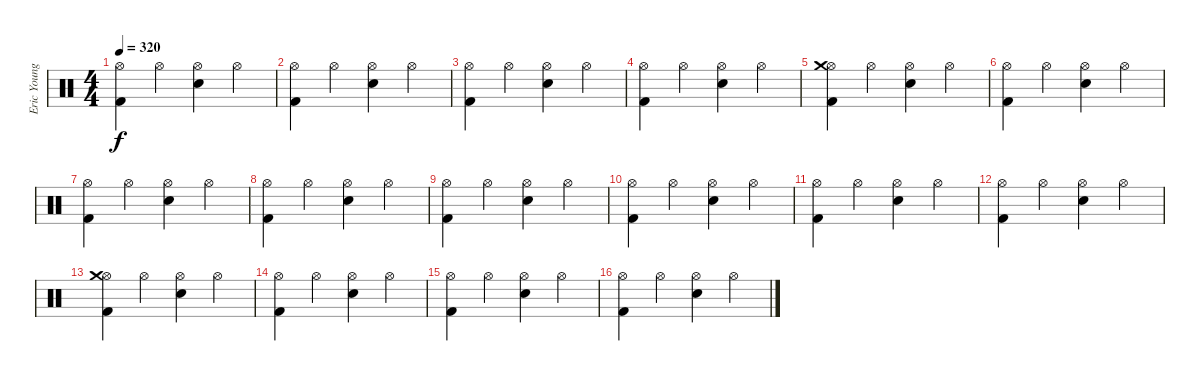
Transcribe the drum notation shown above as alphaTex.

\track ("Eric Young (Drums)" "Eric Young") {instrument percussion}
\staff {score}
\articulation defaults
\ts (4 4)
\tempo 320
\clef neutral
\ks c
("Hi-Hat (open)" "Kick (hit) 2").4{dy f} "Hi-Hat (open)".4 ("Hi-Hat (open)" "Snare (hit) 2").4 "Hi-Hat (open)".4 |
("Hi-Hat (open)" "Kick (hit) 2").4 "Hi-Hat (open)".4 ("Hi-Hat (open)" "Snare (hit) 2").4 "Hi-Hat (open)".4 |
("Hi-Hat (open)" "Kick (hit) 2").4 "Hi-Hat (open)".4 ("Hi-Hat (open)" "Snare (hit) 2").4 "Hi-Hat (open)".4 |
("Hi-Hat (open)" "Kick (hit) 2").4 "Hi-Hat (open)".4 ("Hi-Hat (open)" "Snare (hit) 2").4 "Hi-Hat (open)".4 |
("Hi-Hat (open)" "Kick (hit) 2" "Crash medium (hit)").4 "Hi-Hat (open)".4 ("Hi-Hat (open)" "Snare (hit) 2").4 "Hi-Hat (open)".4 |
("Hi-Hat (open)" "Kick (hit) 2").4 "Hi-Hat (open)".4 ("Hi-Hat (open)" "Snare (hit) 2").4 "Hi-Hat (open)".4 |
("Hi-Hat (open)" "Kick (hit) 2").4 "Hi-Hat (open)".4 ("Hi-Hat (open)" "Snare (hit) 2").4 "Hi-Hat (open)".4 |
("Hi-Hat (open)" "Kick (hit) 2").4 "Hi-Hat (open)".4 ("Hi-Hat (open)" "Snare (hit) 2").4 "Hi-Hat (open)".4 |
("Hi-Hat (open)" "Kick (hit) 2").4 "Hi-Hat (open)".4 ("Hi-Hat (open)" "Snare (hit) 2").4 "Hi-Hat (open)".4 |
("Hi-Hat (open)" "Kick (hit) 2").4 "Hi-Hat (open)".4 ("Hi-Hat (open)" "Snare (hit) 2").4 "Hi-Hat (open)".4 |
("Hi-Hat (open)" "Kick (hit) 2").4 "Hi-Hat (open)".4 ("Hi-Hat (open)" "Snare (hit) 2").4 "Hi-Hat (open)".4 |
("Hi-Hat (open)" "Kick (hit) 2").4 "Hi-Hat (open)".4 ("Hi-Hat (open)" "Snare (hit) 2").4 "Hi-Hat (open)".4 |
("Hi-Hat (open)" "Kick (hit) 2" "Crash medium (hit)").4 "Hi-Hat (open)".4 ("Hi-Hat (open)" "Snare (hit) 2").4 "Hi-Hat (open)".4 |
("Hi-Hat (open)" "Kick (hit) 2").4 "Hi-Hat (open)".4 ("Hi-Hat (open)" "Snare (hit) 2").4 "Hi-Hat (open)".4 |
("Hi-Hat (open)" "Kick (hit) 2").4 "Hi-Hat (open)".4 ("Hi-Hat (open)" "Snare (hit) 2").4 "Hi-Hat (open)".4 |
("Hi-Hat (open)" "Kick (hit) 2").4 "Hi-Hat (open)".4 ("Hi-Hat (open)" "Snare (hit) 2").4 "Hi-Hat (open)".4
